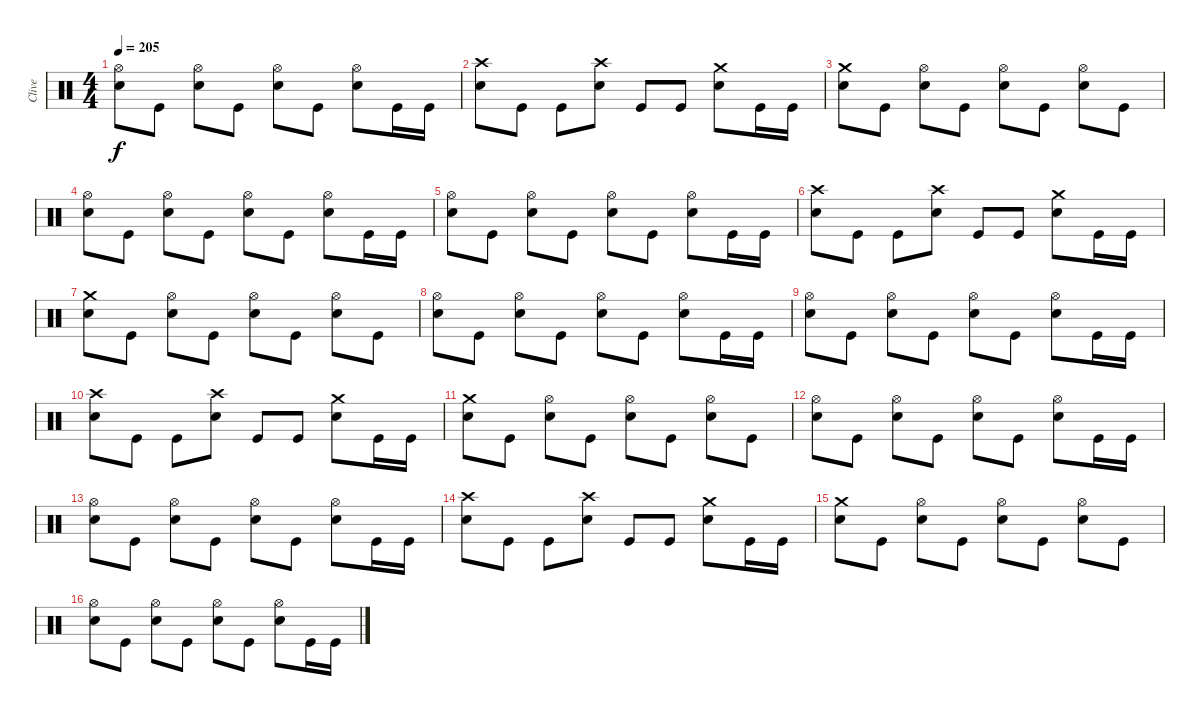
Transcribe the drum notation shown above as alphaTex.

\track ("Clive" "Clive") {instrument percussion}
\staff {score}
\articulation defaults
\ts (4 4)
\tempo 205
\clef neutral
\ks c
("Hi-Hat (open)" "Snare (hit) 2").8{dy f} "Kick (hit)".8 ("Hi-Hat (open)" "Snare (hit) 2").8 "Kick (hit)".8 ("Hi-Hat (open)" "Snare (hit) 2").8 "Kick (hit)".8 ("Hi-Hat (open)" "Snare (hit) 2").8 "Kick (hit)".16 "Kick (hit)".16 |
("Crash high (hit)" "Snare (hit) 2").8 "Kick (hit)".8 "Kick (hit)".8 ("Crash high (hit)" "Snare (hit) 2").8 "Kick (hit)".8 "Kick (hit)".8 ("Crash medium (hit)" "Snare (hit) 2").8 "Kick (hit)".16 "Kick (hit)".16 |
("Crash medium (hit)" "Snare (hit) 2").8 "Kick (hit)".8 ("Hi-Hat (open)" "Snare (hit) 2").8 "Kick (hit)".8 ("Hi-Hat (open)" "Snare (hit) 2").8 "Kick (hit)".8 ("Hi-Hat (open)" "Snare (hit) 2").8 "Kick (hit)".8 |
("Hi-Hat (open)" "Snare (hit) 2").8 "Kick (hit)".8 ("Hi-Hat (open)" "Snare (hit) 2").8 "Kick (hit)".8 ("Hi-Hat (open)" "Snare (hit) 2").8 "Kick (hit)".8 ("Hi-Hat (open)" "Snare (hit) 2").8 "Kick (hit)".16 "Kick (hit)".16 |
("Hi-Hat (open)" "Snare (hit) 2").8 "Kick (hit)".8 ("Hi-Hat (open)" "Snare (hit) 2").8 "Kick (hit)".8 ("Hi-Hat (open)" "Snare (hit) 2").8 "Kick (hit)".8 ("Hi-Hat (open)" "Snare (hit) 2").8 "Kick (hit)".16 "Kick (hit)".16 |
("Crash high (hit)" "Snare (hit) 2").8 "Kick (hit)".8 "Kick (hit)".8 ("Crash high (hit)" "Snare (hit) 2").8 "Kick (hit)".8 "Kick (hit)".8 ("Crash medium (hit)" "Snare (hit) 2").8 "Kick (hit)".16 "Kick (hit)".16 |
("Crash medium (hit)" "Snare (hit) 2").8 "Kick (hit)".8 ("Hi-Hat (open)" "Snare (hit) 2").8 "Kick (hit)".8 ("Hi-Hat (open)" "Snare (hit) 2").8 "Kick (hit)".8 ("Hi-Hat (open)" "Snare (hit) 2").8 "Kick (hit)".8 |
("Hi-Hat (open)" "Snare (hit) 2").8 "Kick (hit)".8 ("Hi-Hat (open)" "Snare (hit) 2").8 "Kick (hit)".8 ("Hi-Hat (open)" "Snare (hit) 2").8 "Kick (hit)".8 ("Hi-Hat (open)" "Snare (hit) 2").8 "Kick (hit)".16 "Kick (hit)".16 |
("Hi-Hat (open)" "Snare (hit) 2").8 "Kick (hit)".8 ("Hi-Hat (open)" "Snare (hit) 2").8 "Kick (hit)".8 ("Hi-Hat (open)" "Snare (hit) 2").8 "Kick (hit)".8 ("Hi-Hat (open)" "Snare (hit) 2").8 "Kick (hit)".16 "Kick (hit)".16 |
("Crash high (hit)" "Snare (hit) 2").8 "Kick (hit)".8 "Kick (hit)".8 ("Crash high (hit)" "Snare (hit) 2").8 "Kick (hit)".8 "Kick (hit)".8 ("Crash medium (hit)" "Snare (hit) 2").8 "Kick (hit)".16 "Kick (hit)".16 |
("Crash medium (hit)" "Snare (hit) 2").8 "Kick (hit)".8 ("Hi-Hat (open)" "Snare (hit) 2").8 "Kick (hit)".8 ("Hi-Hat (open)" "Snare (hit) 2").8 "Kick (hit)".8 ("Hi-Hat (open)" "Snare (hit) 2").8 "Kick (hit)".8 |
("Hi-Hat (open)" "Snare (hit) 2").8 "Kick (hit)".8 ("Hi-Hat (open)" "Snare (hit) 2").8 "Kick (hit)".8 ("Hi-Hat (open)" "Snare (hit) 2").8 "Kick (hit)".8 ("Hi-Hat (open)" "Snare (hit) 2").8 "Kick (hit)".16 "Kick (hit)".16 |
("Hi-Hat (open)" "Snare (hit) 2").8 "Kick (hit)".8 ("Hi-Hat (open)" "Snare (hit) 2").8 "Kick (hit)".8 ("Hi-Hat (open)" "Snare (hit) 2").8 "Kick (hit)".8 ("Hi-Hat (open)" "Snare (hit) 2").8 "Kick (hit)".16 "Kick (hit)".16 |
("Crash high (hit)" "Snare (hit) 2").8 "Kick (hit)".8 "Kick (hit)".8 ("Crash high (hit)" "Snare (hit) 2").8 "Kick (hit)".8 "Kick (hit)".8 ("Crash medium (hit)" "Snare (hit) 2").8 "Kick (hit)".16 "Kick (hit)".16 |
("Crash medium (hit)" "Snare (hit) 2").8 "Kick (hit)".8 ("Hi-Hat (open)" "Snare (hit) 2").8 "Kick (hit)".8 ("Hi-Hat (open)" "Snare (hit) 2").8 "Kick (hit)".8 ("Hi-Hat (open)" "Snare (hit) 2").8 "Kick (hit)".8 |
("Hi-Hat (open)" "Snare (hit) 2").8 "Kick (hit)".8 ("Hi-Hat (open)" "Snare (hit) 2").8 "Kick (hit)".8 ("Hi-Hat (open)" "Snare (hit) 2").8 "Kick (hit)".8 ("Hi-Hat (open)" "Snare (hit) 2").8 "Kick (hit)".16 "Kick (hit)".16
